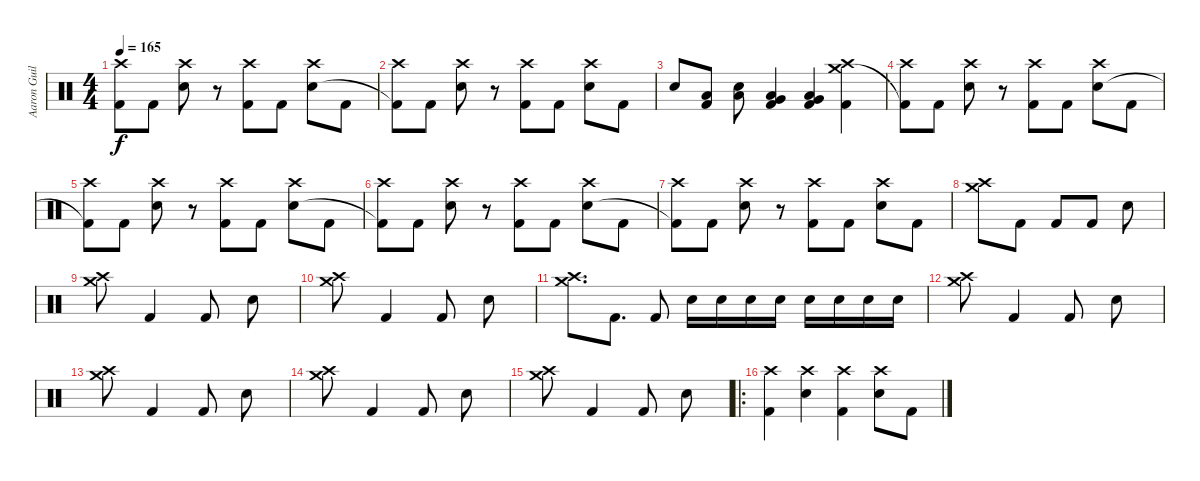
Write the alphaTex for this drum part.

\track ("Aaron Guillespie" "Aaron Guil") {instrument percussion}
\staff {score}
\articulation defaults
\ts (4 4)
\tempo 165
\clef neutral
\ks c
("Crash high (hit)" "Kick (hit) 2"{t}).8{dy f} "Kick (hit) 2".8 ("Crash high (hit)" "Electric Snare (hit)").8 r.8 ("Crash high (hit)" "Kick (hit) 2").8 "Kick (hit) 2".8 ("Crash high (hit)" "Electric Snare (hit)").8 "Kick (hit) 2".8 |
("Crash high (hit)" "Kick (hit) 2"{t}).8 "Kick (hit) 2".8 ("Crash high (hit)" "Electric Snare (hit)").8 r.8 ("Crash high (hit)" "Kick (hit) 2").8 "Kick (hit) 2".8 ("Crash high (hit)" "Electric Snare (hit)").8 "Kick (hit) 2".8 |
"Electric Snare (hit)".8 ("Low Tom (hit)" "Kick (hit) 2").8 ("Low Tom (hit)" "Electric Snare (hit)").8 ("Low Tom (hit)" "Very Low Tom (hit)" "Kick (hit) 2").4 ("Low Tom (hit)" "Very Low Tom (hit)" "Kick (hit) 2").4 ("Crash high (hit)" "Crash medium (hit)" "Kick (hit) 2").4 |
("Crash high (hit)" "Kick (hit) 2"{t}).8 "Kick (hit) 2".8 ("Crash high (hit)" "Electric Snare (hit)").8 r.8 ("Crash high (hit)" "Kick (hit) 2").8 "Kick (hit) 2".8 ("Crash high (hit)" "Electric Snare (hit)").8 "Kick (hit) 2".8 |
("Crash high (hit)" "Kick (hit) 2"{t}).8 "Kick (hit) 2".8 ("Crash high (hit)" "Electric Snare (hit)").8 r.8 ("Crash high (hit)" "Kick (hit) 2").8 "Kick (hit) 2".8 ("Crash high (hit)" "Electric Snare (hit)").8 "Kick (hit) 2".8 |
("Crash high (hit)" "Kick (hit) 2"{t}).8 "Kick (hit) 2".8 ("Crash high (hit)" "Electric Snare (hit)").8 r.8 ("Crash high (hit)" "Kick (hit) 2").8 "Kick (hit) 2".8 ("Crash high (hit)" "Electric Snare (hit)").8 "Kick (hit) 2".8 |
("Crash high (hit)" "Kick (hit) 2"{t}).8 "Kick (hit) 2".8 ("Crash high (hit)" "Electric Snare (hit)").8 r.8 ("Crash high (hit)" "Kick (hit) 2").8 "Kick (hit) 2".8 ("Crash high (hit)" "Electric Snare (hit)").8 "Kick (hit) 2".8 |
("Crash medium (hit)" "Crash high (hit)").8 "Kick (hit) 2".8 "Kick (hit) 2".8 "Kick (hit) 2".8 "Electric Snare (hit)".8 |
("Crash medium (hit)" "Crash high (hit)").8 "Kick (hit) 2".4 "Kick (hit) 2".8 "Electric Snare (hit)".8 |
("Crash medium (hit)" "Crash high (hit)").8 "Kick (hit) 2".4 "Kick (hit) 2".8 "Electric Snare (hit)".8 |
("Crash medium (hit)" "Crash high (hit)").8{d} "Kick (hit) 2".8{d} "Kick (hit) 2".8 "Electric Snare (hit)".16 "Electric Snare (hit)".16 "Electric Snare (hit)".16 "Electric Snare (hit)".16 "Electric Snare (hit)".16 "Electric Snare (hit)".16 "Electric Snare (hit)".16 "Electric Snare (hit)".16 |
("Crash medium (hit)" "Crash high (hit)").8 "Kick (hit) 2".4 "Kick (hit) 2".8 "Electric Snare (hit)".8 |
("Crash medium (hit)" "Crash high (hit)").8 "Kick (hit) 2".4 "Kick (hit) 2".8 "Electric Snare (hit)".8 |
("Crash medium (hit)" "Crash high (hit)").8 "Kick (hit) 2".4 "Kick (hit) 2".8 "Electric Snare (hit)".8 |
("Crash medium (hit)" "Crash high (hit)").8 "Kick (hit) 2".4 "Kick (hit) 2".8 "Electric Snare (hit)".8 |
\ro
("Crash high (hit)" "Kick (hit) 2").4 ("Crash high (hit)" "Electric Snare (hit)").4 ("Crash high (hit)" "Kick (hit) 2").4 ("Crash high (hit)" "Electric Snare (hit)").8 "Kick (hit) 2".8
